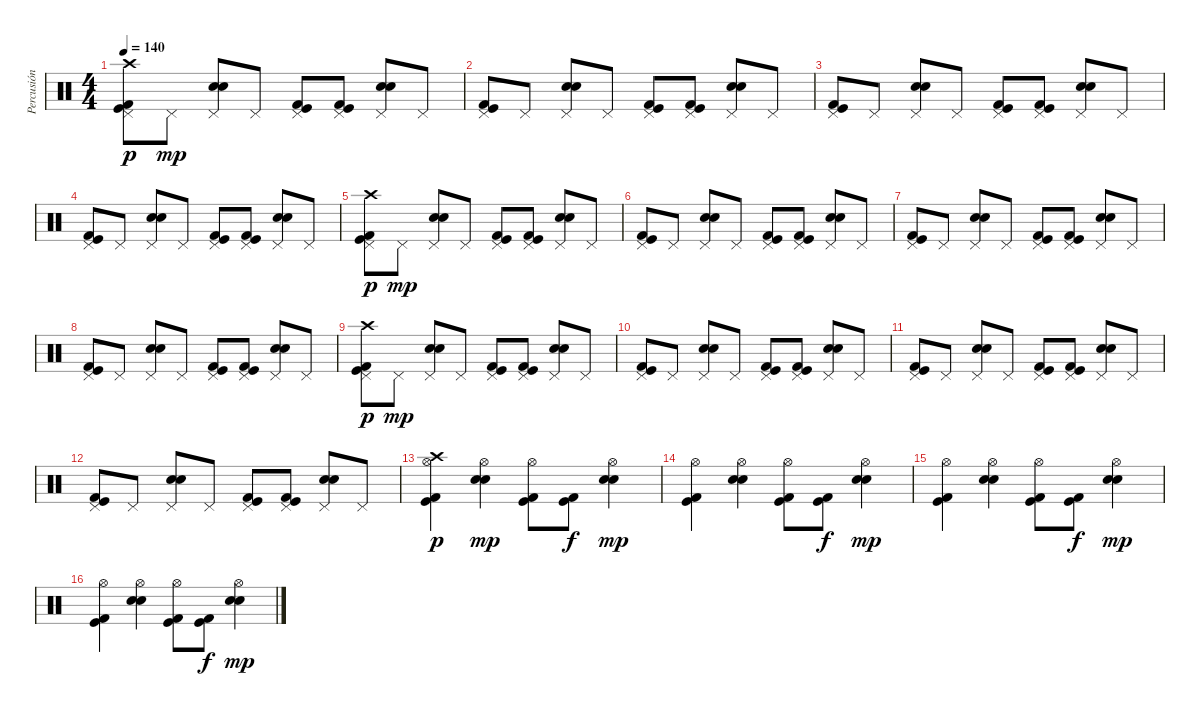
\track ("Percusión" "Percusión") {instrument percussion}
\staff {score}
\articulation defaults
\ts (4 4)
\tempo 140
\clef neutral
\ks c
("Kick (hit)" "Kick (hit) 2" "Pedal Hi-Hat (hit)" "Crash high (hit)").8{dy p} "Pedal Hi-Hat (hit)".8{dy mp} ("Electric Snare (hit)" "Snare (hit) 2" "Pedal Hi-Hat (hit)").8 "Pedal Hi-Hat (hit)".8 ("Kick (hit)" "Kick (hit) 2" "Pedal Hi-Hat (hit)").8 ("Kick (hit)" "Kick (hit) 2" "Pedal Hi-Hat (hit)").8 ("Snare (hit) 2" "Electric Snare (hit)" "Pedal Hi-Hat (hit)").8 "Pedal Hi-Hat (hit)".8 |
("Kick (hit)" "Kick (hit) 2" "Pedal Hi-Hat (hit)").8 "Pedal Hi-Hat (hit)".8 ("Electric Snare (hit)" "Snare (hit) 2" "Pedal Hi-Hat (hit)").8 "Pedal Hi-Hat (hit)".8 ("Kick (hit)" "Kick (hit) 2" "Pedal Hi-Hat (hit)").8 ("Kick (hit)" "Kick (hit) 2" "Pedal Hi-Hat (hit)").8 ("Snare (hit) 2" "Electric Snare (hit)" "Pedal Hi-Hat (hit)").8 "Pedal Hi-Hat (hit)".8 |
("Kick (hit)" "Kick (hit) 2" "Pedal Hi-Hat (hit)").8 "Pedal Hi-Hat (hit)".8 ("Electric Snare (hit)" "Snare (hit) 2" "Pedal Hi-Hat (hit)").8 "Pedal Hi-Hat (hit)".8 ("Kick (hit)" "Kick (hit) 2" "Pedal Hi-Hat (hit)").8 ("Kick (hit)" "Kick (hit) 2" "Pedal Hi-Hat (hit)").8 ("Snare (hit) 2" "Electric Snare (hit)" "Pedal Hi-Hat (hit)").8 "Pedal Hi-Hat (hit)".8 |
("Kick (hit)" "Kick (hit) 2" "Pedal Hi-Hat (hit)").8 "Pedal Hi-Hat (hit)".8 ("Electric Snare (hit)" "Snare (hit) 2" "Pedal Hi-Hat (hit)").8 "Pedal Hi-Hat (hit)".8 ("Kick (hit)" "Kick (hit) 2" "Pedal Hi-Hat (hit)").8 ("Kick (hit)" "Kick (hit) 2" "Pedal Hi-Hat (hit)").8 ("Snare (hit) 2" "Electric Snare (hit)" "Pedal Hi-Hat (hit)").8 "Pedal Hi-Hat (hit)".8 |
("Kick (hit)" "Kick (hit) 2" "Pedal Hi-Hat (hit)" "Crash high (hit)").8{dy p} "Pedal Hi-Hat (hit)".8{dy mp} ("Electric Snare (hit)" "Snare (hit) 2" "Pedal Hi-Hat (hit)").8 "Pedal Hi-Hat (hit)".8 ("Kick (hit)" "Kick (hit) 2" "Pedal Hi-Hat (hit)").8 ("Kick (hit)" "Kick (hit) 2" "Pedal Hi-Hat (hit)").8 ("Snare (hit) 2" "Electric Snare (hit)" "Pedal Hi-Hat (hit)").8 "Pedal Hi-Hat (hit)".8 |
("Kick (hit)" "Kick (hit) 2" "Pedal Hi-Hat (hit)").8 "Pedal Hi-Hat (hit)".8 ("Electric Snare (hit)" "Snare (hit) 2" "Pedal Hi-Hat (hit)").8 "Pedal Hi-Hat (hit)".8 ("Kick (hit)" "Kick (hit) 2" "Pedal Hi-Hat (hit)").8 ("Kick (hit)" "Kick (hit) 2" "Pedal Hi-Hat (hit)").8 ("Snare (hit) 2" "Electric Snare (hit)" "Pedal Hi-Hat (hit)").8 "Pedal Hi-Hat (hit)".8 |
("Kick (hit)" "Kick (hit) 2" "Pedal Hi-Hat (hit)").8 "Pedal Hi-Hat (hit)".8 ("Electric Snare (hit)" "Snare (hit) 2" "Pedal Hi-Hat (hit)").8 "Pedal Hi-Hat (hit)".8 ("Kick (hit)" "Kick (hit) 2" "Pedal Hi-Hat (hit)").8 ("Kick (hit)" "Kick (hit) 2" "Pedal Hi-Hat (hit)").8 ("Snare (hit) 2" "Electric Snare (hit)" "Pedal Hi-Hat (hit)").8 "Pedal Hi-Hat (hit)".8 |
("Kick (hit)" "Kick (hit) 2" "Pedal Hi-Hat (hit)").8 "Pedal Hi-Hat (hit)".8 ("Electric Snare (hit)" "Snare (hit) 2" "Pedal Hi-Hat (hit)").8 "Pedal Hi-Hat (hit)".8 ("Kick (hit)" "Kick (hit) 2" "Pedal Hi-Hat (hit)").8 ("Kick (hit)" "Kick (hit) 2" "Pedal Hi-Hat (hit)").8 ("Snare (hit) 2" "Electric Snare (hit)" "Pedal Hi-Hat (hit)").8 "Pedal Hi-Hat (hit)".8 |
("Kick (hit)" "Kick (hit) 2" "Pedal Hi-Hat (hit)" "Crash high (hit)").8{dy p} "Pedal Hi-Hat (hit)".8{dy mp} ("Electric Snare (hit)" "Snare (hit) 2" "Pedal Hi-Hat (hit)").8 "Pedal Hi-Hat (hit)".8 ("Kick (hit)" "Kick (hit) 2" "Pedal Hi-Hat (hit)").8 ("Kick (hit)" "Kick (hit) 2" "Pedal Hi-Hat (hit)").8 ("Snare (hit) 2" "Electric Snare (hit)" "Pedal Hi-Hat (hit)").8 "Pedal Hi-Hat (hit)".8 |
("Kick (hit)" "Kick (hit) 2" "Pedal Hi-Hat (hit)").8 "Pedal Hi-Hat (hit)".8 ("Electric Snare (hit)" "Snare (hit) 2" "Pedal Hi-Hat (hit)").8 "Pedal Hi-Hat (hit)".8 ("Kick (hit)" "Kick (hit) 2" "Pedal Hi-Hat (hit)").8 ("Kick (hit)" "Kick (hit) 2" "Pedal Hi-Hat (hit)").8 ("Snare (hit) 2" "Electric Snare (hit)" "Pedal Hi-Hat (hit)").8 "Pedal Hi-Hat (hit)".8 |
("Kick (hit)" "Kick (hit) 2" "Pedal Hi-Hat (hit)").8 "Pedal Hi-Hat (hit)".8 ("Electric Snare (hit)" "Snare (hit) 2" "Pedal Hi-Hat (hit)").8 "Pedal Hi-Hat (hit)".8 ("Kick (hit)" "Kick (hit) 2" "Pedal Hi-Hat (hit)").8 ("Kick (hit)" "Kick (hit) 2" "Pedal Hi-Hat (hit)").8 ("Snare (hit) 2" "Electric Snare (hit)" "Pedal Hi-Hat (hit)").8 "Pedal Hi-Hat (hit)".8 |
("Kick (hit)" "Kick (hit) 2" "Pedal Hi-Hat (hit)").8 "Pedal Hi-Hat (hit)".8 ("Electric Snare (hit)" "Snare (hit) 2" "Pedal Hi-Hat (hit)").8 "Pedal Hi-Hat (hit)".8 ("Kick (hit)" "Kick (hit) 2" "Pedal Hi-Hat (hit)").8 ("Kick (hit)" "Kick (hit) 2" "Pedal Hi-Hat (hit)").8 ("Snare (hit) 2" "Electric Snare (hit)" "Pedal Hi-Hat (hit)").8 "Pedal Hi-Hat (hit)".8 |
("Kick (hit)" "Kick (hit) 2" "Hi-Hat (open)" "Crash high (hit)").4{dy p} ("Electric Snare (hit)" "Snare (hit) 2" "Hi-Hat (open)").4{dy mp} ("Kick (hit)" "Kick (hit) 2" "Hi-Hat (open)").8 ("Kick (hit)" "Kick (hit) 2").8{dy f} ("Snare (hit) 2" "Electric Snare (hit)" "Hi-Hat (open)").4{dy mp} |
("Kick (hit)" "Kick (hit) 2" "Hi-Hat (open)").4 ("Electric Snare (hit)" "Snare (hit) 2" "Hi-Hat (open)").4 ("Kick (hit)" "Kick (hit) 2" "Hi-Hat (open)").8 ("Kick (hit)" "Kick (hit) 2").8{dy f} ("Snare (hit) 2" "Electric Snare (hit)" "Hi-Hat (open)").4{dy mp} |
("Kick (hit)" "Kick (hit) 2" "Hi-Hat (open)").4 ("Electric Snare (hit)" "Snare (hit) 2" "Hi-Hat (open)").4 ("Kick (hit)" "Kick (hit) 2" "Hi-Hat (open)").8 ("Kick (hit)" "Kick (hit) 2").8{dy f} ("Snare (hit) 2" "Electric Snare (hit)" "Hi-Hat (open)").4{dy mp} |
("Kick (hit)" "Kick (hit) 2" "Hi-Hat (open)").4 ("Electric Snare (hit)" "Snare (hit) 2" "Hi-Hat (open)").4 ("Kick (hit)" "Kick (hit) 2" "Hi-Hat (open)").8 ("Kick (hit)" "Kick (hit) 2").8{dy f} ("Snare (hit) 2" "Electric Snare (hit)" "Hi-Hat (open)").4{dy mp}
